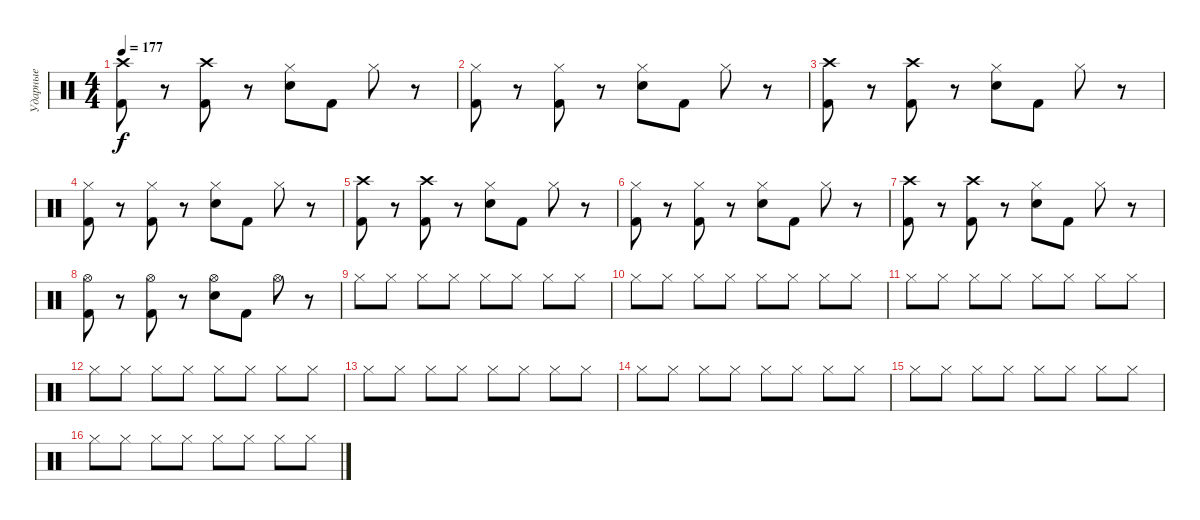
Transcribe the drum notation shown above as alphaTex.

\track ("Ударные" "Ударные") {instrument percussion}
\staff {score}
\articulation defaults
\ts (4 4)
\tempo 177
\clef neutral
\ks c
("Kick (hit) 2" "Crash high (hit)").8{dy f} r.8 ("Kick (hit) 2" "Crash high (hit)").8 r.8 ("Electric Snare (hit)" "Hi-Hat (closed)").8 "Kick (hit) 2".8 "Hi-Hat (closed)".8 r.8 |
("Kick (hit) 2" "Hi-Hat (closed)").8 r.8 ("Kick (hit) 2" "Hi-Hat (closed)").8 r.8 ("Electric Snare (hit)" "Hi-Hat (closed)").8 "Kick (hit) 2".8 "Hi-Hat (closed)".8 r.8 |
("Kick (hit) 2" "Crash high (hit)").8 r.8 ("Kick (hit) 2" "Crash high (hit)").8 r.8 ("Electric Snare (hit)" "Hi-Hat (closed)").8 "Kick (hit) 2".8 "Hi-Hat (closed)".8 r.8 |
("Kick (hit) 2" "Hi-Hat (closed)").8 r.8 ("Kick (hit) 2" "Hi-Hat (closed)").8 r.8 ("Electric Snare (hit)" "Hi-Hat (closed)").8 "Kick (hit) 2".8 "Hi-Hat (closed)".8 r.8 |
("Kick (hit) 2" "Crash high (hit)").8 r.8 ("Kick (hit) 2" "Crash high (hit)").8 r.8 ("Electric Snare (hit)" "Hi-Hat (closed)").8 "Kick (hit) 2".8 "Hi-Hat (closed)".8 r.8 |
("Kick (hit) 2" "Hi-Hat (closed)").8 r.8 ("Kick (hit) 2" "Hi-Hat (closed)").8 r.8 ("Electric Snare (hit)" "Hi-Hat (closed)").8 "Kick (hit) 2".8 "Hi-Hat (closed)".8 r.8 |
("Kick (hit) 2" "Crash high (hit)").8 r.8 ("Kick (hit) 2" "Crash high (hit)").8 r.8 ("Electric Snare (hit)" "Hi-Hat (closed)").8 "Kick (hit) 2".8 "Hi-Hat (closed)".8 r.8 |
("Kick (hit) 2" "Hi-Hat (open)").8 r.8 ("Kick (hit) 2" "Hi-Hat (open)").8 r.8 ("Electric Snare (hit)" "Hi-Hat (open)").8 "Kick (hit) 2".8 "Hi-Hat (open)".8 r.8 |
"Hi-Hat (closed)".8 "Hi-Hat (closed)".8 "Hi-Hat (closed)".8 "Hi-Hat (closed)".8 "Hi-Hat (closed)".8 "Hi-Hat (closed)".8 "Hi-Hat (closed)".8 "Hi-Hat (closed)".8 |
"Hi-Hat (closed)".8 "Hi-Hat (closed)".8 "Hi-Hat (closed)".8 "Hi-Hat (closed)".8 "Hi-Hat (closed)".8 "Hi-Hat (closed)".8 "Hi-Hat (closed)".8 "Hi-Hat (closed)".8 |
"Hi-Hat (closed)".8 "Hi-Hat (closed)".8 "Hi-Hat (closed)".8 "Hi-Hat (closed)".8 "Hi-Hat (closed)".8 "Hi-Hat (closed)".8 "Hi-Hat (closed)".8 "Hi-Hat (closed)".8 |
"Hi-Hat (closed)".8 "Hi-Hat (closed)".8 "Hi-Hat (closed)".8 "Hi-Hat (closed)".8 "Hi-Hat (closed)".8 "Hi-Hat (closed)".8 "Hi-Hat (closed)".8 "Hi-Hat (closed)".8 |
"Hi-Hat (closed)".8 "Hi-Hat (closed)".8 "Hi-Hat (closed)".8 "Hi-Hat (closed)".8 "Hi-Hat (closed)".8 "Hi-Hat (closed)".8 "Hi-Hat (closed)".8 "Hi-Hat (closed)".8 |
"Hi-Hat (closed)".8 "Hi-Hat (closed)".8 "Hi-Hat (closed)".8 "Hi-Hat (closed)".8 "Hi-Hat (closed)".8 "Hi-Hat (closed)".8 "Hi-Hat (closed)".8 "Hi-Hat (closed)".8 |
"Hi-Hat (closed)".8 "Hi-Hat (closed)".8 "Hi-Hat (closed)".8 "Hi-Hat (closed)".8 "Hi-Hat (closed)".8 "Hi-Hat (closed)".8 "Hi-Hat (closed)".8 "Hi-Hat (closed)".8 |
"Hi-Hat (closed)".8 "Hi-Hat (closed)".8 "Hi-Hat (closed)".8 "Hi-Hat (closed)".8 "Hi-Hat (closed)".8 "Hi-Hat (closed)".8 "Hi-Hat (closed)".8 "Hi-Hat (closed)".8
